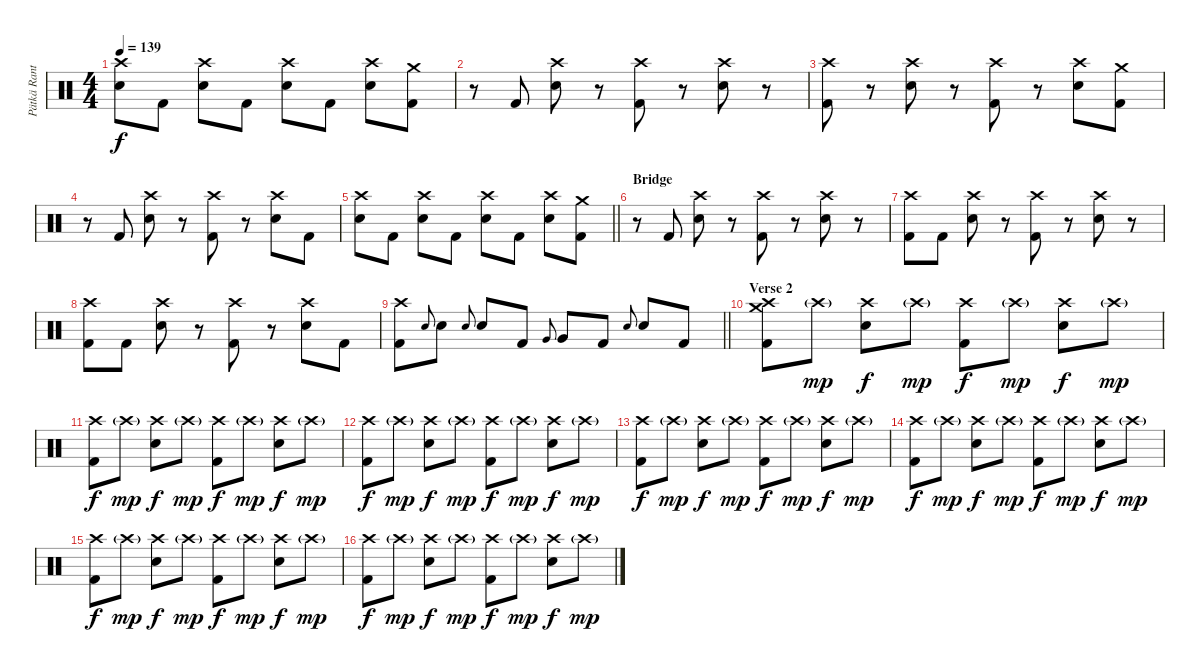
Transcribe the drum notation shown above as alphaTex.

\track ("Pätkä Rantala (Drums)" "Pätkä Rant") {instrument percussion}
\staff {score}
\articulation defaults
\ts (4 4)
\tempo 139
\clef neutral
\ks c
("Crash high (hit)" "Snare (hit) 2").8{dy f} "Kick (hit) 2".8 ("Crash high (hit)" "Snare (hit) 2").8 "Kick (hit) 2".8 ("Crash high (hit)" "Snare (hit) 2").8 "Kick (hit) 2".8 ("Crash high (hit)" "Snare (hit) 2").8 ("Crash medium (hit)" "Kick (hit) 2").8 |
r.8 "Kick (hit) 2".8 ("Crash high (hit)" "Snare (hit) 2").8 r.8 ("Crash high (hit)" "Kick (hit) 2").8 r.8 ("Crash high (hit)" "Snare (hit) 2").8 r.8 |
("Crash high (hit)" "Kick (hit) 2").8 r.8 ("Crash high (hit)" "Snare (hit) 2").8 r.8 ("Crash high (hit)" "Kick (hit) 2").8 r.8 ("Crash high (hit)" "Snare (hit) 2").8 ("Crash medium (hit)" "Kick (hit) 2").8 |
r.8 "Kick (hit) 2".8 ("Crash high (hit)" "Snare (hit) 2").8 r.8 ("Crash high (hit)" "Kick (hit) 2").8 r.8 ("Crash high (hit)" "Snare (hit) 2").8 "Kick (hit) 2".8 |
\barLineRight lightlight
("Crash high (hit)" "Snare (hit) 2").8 "Kick (hit) 2".8 ("Crash high (hit)" "Snare (hit) 2").8 "Kick (hit) 2".8 ("Crash high (hit)" "Snare (hit) 2").8 "Kick (hit) 2".8 ("Crash high (hit)" "Snare (hit) 2").8 ("Crash medium (hit)" "Kick (hit) 2").8 |
\section ("" "Bridge")
r.8 "Kick (hit) 2".8 ("Crash high (hit)" "Snare (hit) 2").8 r.8 ("Crash high (hit)" "Kick (hit) 2").8 r.8 ("Crash high (hit)" "Snare (hit) 2").8 r.8 |
("Crash high (hit)" "Kick (hit) 2").8 "Kick (hit) 2".8 ("Crash high (hit)" "Snare (hit) 2").8 r.8 ("Crash high (hit)" "Kick (hit) 2").8 r.8 ("Crash high (hit)" "Snare (hit) 2").8 r.8 |
("Crash high (hit)" "Kick (hit) 2").8 "Kick (hit) 2".8 ("Crash high (hit)" "Snare (hit) 2").8 r.8 ("Crash high (hit)" "Kick (hit) 2").8 r.8 ("Crash high (hit)" "Snare (hit) 2").8 "Kick (hit) 2".8 |
\barLineRight lightlight
("Crash high (hit)" "Kick (hit) 2").8 "Snare (hit) 2".8{gr onbeat} "Snare (hit) 2".8 "Snare (hit) 2".8{gr onbeat} "Snare (hit) 2".8 "Kick (hit) 2".8 "Very Low Tom (hit)".8{gr onbeat} "Very Low Tom (hit)".8 "Kick (hit) 2".8 "Snare (hit) 2".8{gr onbeat} "Snare (hit) 2".8 "Kick (hit) 2".8 |
\section ("" "Verse 2")
("Crash medium (hit)" "Crash high (hit)" "Kick (hit) 2").8 "Crash high (hit)"{g}.8{dy mp} ("Crash high (hit)" "Snare (hit) 2").8{dy f} "Crash high (hit)"{g}.8{dy mp} ("Crash high (hit)" "Kick (hit) 2").8{dy f} "Crash high (hit)"{g}.8{dy mp} ("Crash high (hit)" "Snare (hit) 2").8{dy f} "Crash high (hit)"{g}.8{dy mp} |
("Crash high (hit)" "Kick (hit) 2").8{dy f} "Crash high (hit)"{g}.8{dy mp} ("Crash high (hit)" "Snare (hit) 2").8{dy f} "Crash high (hit)"{g}.8{dy mp} ("Crash high (hit)" "Kick (hit) 2").8{dy f} "Crash high (hit)"{g}.8{dy mp} ("Crash high (hit)" "Snare (hit) 2").8{dy f} "Crash high (hit)"{g}.8{dy mp} |
("Crash high (hit)" "Kick (hit) 2").8{dy f} "Crash high (hit)"{g}.8{dy mp} ("Crash high (hit)" "Snare (hit) 2").8{dy f} "Crash high (hit)"{g}.8{dy mp} ("Crash high (hit)" "Kick (hit) 2").8{dy f} "Crash high (hit)"{g}.8{dy mp} ("Crash high (hit)" "Snare (hit) 2").8{dy f} "Crash high (hit)"{g}.8{dy mp} |
("Crash high (hit)" "Kick (hit) 2").8{dy f} "Crash high (hit)"{g}.8{dy mp} ("Crash high (hit)" "Snare (hit) 2").8{dy f} "Crash high (hit)"{g}.8{dy mp} ("Crash high (hit)" "Kick (hit) 2").8{dy f} "Crash high (hit)"{g}.8{dy mp} ("Crash high (hit)" "Snare (hit) 2").8{dy f} "Crash high (hit)"{g}.8{dy mp} |
("Crash high (hit)" "Kick (hit) 2").8{dy f} "Crash high (hit)"{g}.8{dy mp} ("Crash high (hit)" "Snare (hit) 2").8{dy f} "Crash high (hit)"{g}.8{dy mp} ("Crash high (hit)" "Kick (hit) 2").8{dy f} "Crash high (hit)"{g}.8{dy mp} ("Crash high (hit)" "Snare (hit) 2").8{dy f} "Crash high (hit)"{g}.8{dy mp} |
("Crash high (hit)" "Kick (hit) 2").8{dy f} "Crash high (hit)"{g}.8{dy mp} ("Crash high (hit)" "Snare (hit) 2").8{dy f} "Crash high (hit)"{g}.8{dy mp} ("Crash high (hit)" "Kick (hit) 2").8{dy f} "Crash high (hit)"{g}.8{dy mp} ("Crash high (hit)" "Snare (hit) 2").8{dy f} "Crash high (hit)"{g}.8{dy mp} |
("Crash high (hit)" "Kick (hit) 2").8{dy f} "Crash high (hit)"{g}.8{dy mp} ("Crash high (hit)" "Snare (hit) 2").8{dy f} "Crash high (hit)"{g}.8{dy mp} ("Crash high (hit)" "Kick (hit) 2").8{dy f} "Crash high (hit)"{g}.8{dy mp} ("Crash high (hit)" "Snare (hit) 2").8{dy f} "Crash high (hit)"{g}.8{dy mp}
